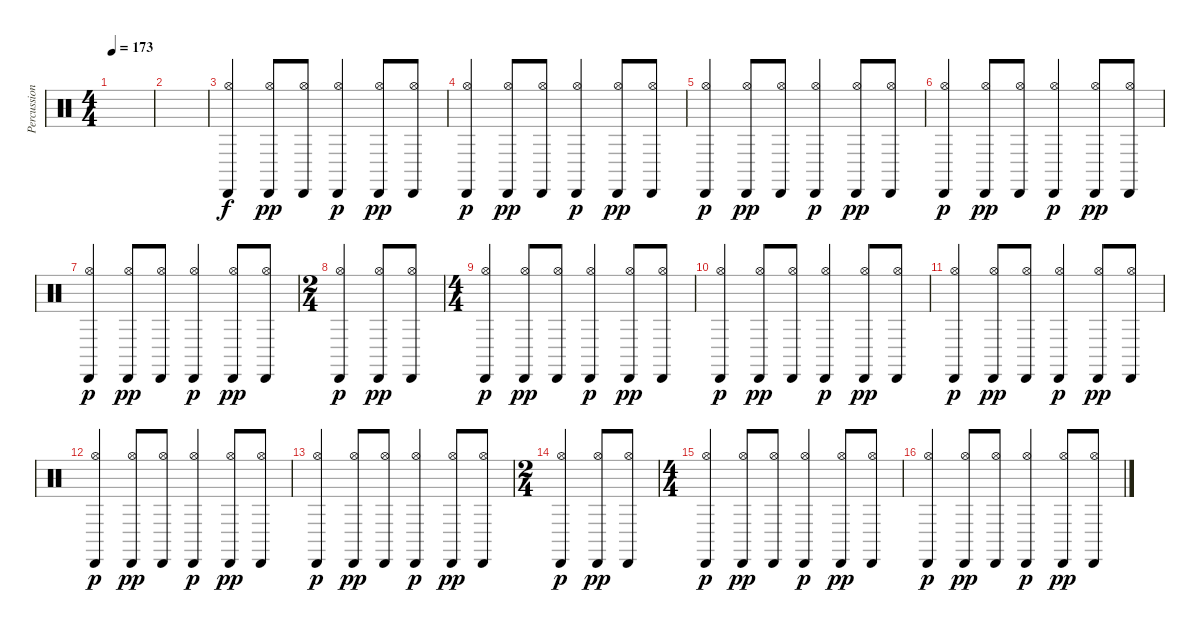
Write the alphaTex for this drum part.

\track ("Percussion" "Percussion") {instrument percussion}
\staff {score}
\articulation defaults
\ts (4 4)
\tempo 173
\clef neutral
\ks c
|
|
("Cabasa (hit)" "Hi-Hat (open)").4 ("Cabasa (hit)" "Hi-Hat (open)").8{dy pp} ("Cabasa (hit)" "Hi-Hat (open)").8 ("Cabasa (hit)" "Hi-Hat (open)").4{dy p} ("Cabasa (hit)" "Hi-Hat (open)").8{dy pp} ("Cabasa (hit)" "Hi-Hat (open)").8 |
("Cabasa (hit)" "Hi-Hat (open)").4{dy p} ("Cabasa (hit)" "Hi-Hat (open)").8{dy pp} ("Cabasa (hit)" "Hi-Hat (open)").8 ("Cabasa (hit)" "Hi-Hat (open)").4{dy p} ("Cabasa (hit)" "Hi-Hat (open)").8{dy pp} ("Cabasa (hit)" "Hi-Hat (open)").8 |
("Cabasa (hit)" "Hi-Hat (open)").4{dy p} ("Cabasa (hit)" "Hi-Hat (open)").8{dy pp} ("Cabasa (hit)" "Hi-Hat (open)").8 ("Cabasa (hit)" "Hi-Hat (open)").4{dy p} ("Cabasa (hit)" "Hi-Hat (open)").8{dy pp} ("Cabasa (hit)" "Hi-Hat (open)").8 |
("Cabasa (hit)" "Hi-Hat (open)").4{dy p} ("Cabasa (hit)" "Hi-Hat (open)").8{dy pp} ("Cabasa (hit)" "Hi-Hat (open)").8 ("Cabasa (hit)" "Hi-Hat (open)").4{dy p} ("Cabasa (hit)" "Hi-Hat (open)").8{dy pp} ("Cabasa (hit)" "Hi-Hat (open)").8 |
("Cabasa (hit)" "Hi-Hat (open)").4{dy p} ("Cabasa (hit)" "Hi-Hat (open)").8{dy pp} ("Cabasa (hit)" "Hi-Hat (open)").8 ("Cabasa (hit)" "Hi-Hat (open)").4{dy p} ("Cabasa (hit)" "Hi-Hat (open)").8{dy pp} ("Cabasa (hit)" "Hi-Hat (open)").8 |
\ts (2 4)
("Cabasa (hit)" "Hi-Hat (open)").4{dy p} ("Cabasa (hit)" "Hi-Hat (open)").8{dy pp} ("Cabasa (hit)" "Hi-Hat (open)").8 |
\ts (4 4)
("Cabasa (hit)" "Hi-Hat (open)").4{dy p} ("Cabasa (hit)" "Hi-Hat (open)").8{dy pp} ("Cabasa (hit)" "Hi-Hat (open)").8 ("Cabasa (hit)" "Hi-Hat (open)").4{dy p} ("Cabasa (hit)" "Hi-Hat (open)").8{dy pp} ("Cabasa (hit)" "Hi-Hat (open)").8 |
("Cabasa (hit)" "Hi-Hat (open)").4{dy p} ("Cabasa (hit)" "Hi-Hat (open)").8{dy pp} ("Cabasa (hit)" "Hi-Hat (open)").8 ("Cabasa (hit)" "Hi-Hat (open)").4{dy p} ("Cabasa (hit)" "Hi-Hat (open)").8{dy pp} ("Cabasa (hit)" "Hi-Hat (open)").8 |
("Cabasa (hit)" "Hi-Hat (open)").4{dy p} ("Cabasa (hit)" "Hi-Hat (open)").8{dy pp} ("Cabasa (hit)" "Hi-Hat (open)").8 ("Cabasa (hit)" "Hi-Hat (open)").4{dy p} ("Cabasa (hit)" "Hi-Hat (open)").8{dy pp} ("Cabasa (hit)" "Hi-Hat (open)").8 |
("Cabasa (hit)" "Hi-Hat (open)").4{dy p} ("Cabasa (hit)" "Hi-Hat (open)").8{dy pp} ("Cabasa (hit)" "Hi-Hat (open)").8 ("Cabasa (hit)" "Hi-Hat (open)").4{dy p} ("Cabasa (hit)" "Hi-Hat (open)").8{dy pp} ("Cabasa (hit)" "Hi-Hat (open)").8 |
("Cabasa (hit)" "Hi-Hat (open)").4{dy p} ("Cabasa (hit)" "Hi-Hat (open)").8{dy pp} ("Cabasa (hit)" "Hi-Hat (open)").8 ("Cabasa (hit)" "Hi-Hat (open)").4{dy p} ("Cabasa (hit)" "Hi-Hat (open)").8{dy pp} ("Cabasa (hit)" "Hi-Hat (open)").8 |
\ts (2 4)
("Cabasa (hit)" "Hi-Hat (open)").4{dy p} ("Cabasa (hit)" "Hi-Hat (open)").8{dy pp} ("Cabasa (hit)" "Hi-Hat (open)").8 |
\ts (4 4)
("Cabasa (hit)" "Hi-Hat (open)").4{dy p} ("Cabasa (hit)" "Hi-Hat (open)").8{dy pp} ("Cabasa (hit)" "Hi-Hat (open)").8 ("Cabasa (hit)" "Hi-Hat (open)").4{dy p} ("Cabasa (hit)" "Hi-Hat (open)").8{dy pp} ("Cabasa (hit)" "Hi-Hat (open)").8 |
("Cabasa (hit)" "Hi-Hat (open)").4{dy p} ("Cabasa (hit)" "Hi-Hat (open)").8{dy pp} ("Cabasa (hit)" "Hi-Hat (open)").8 ("Cabasa (hit)" "Hi-Hat (open)").4{dy p} ("Cabasa (hit)" "Hi-Hat (open)").8{dy pp} ("Cabasa (hit)" "Hi-Hat (open)").8
